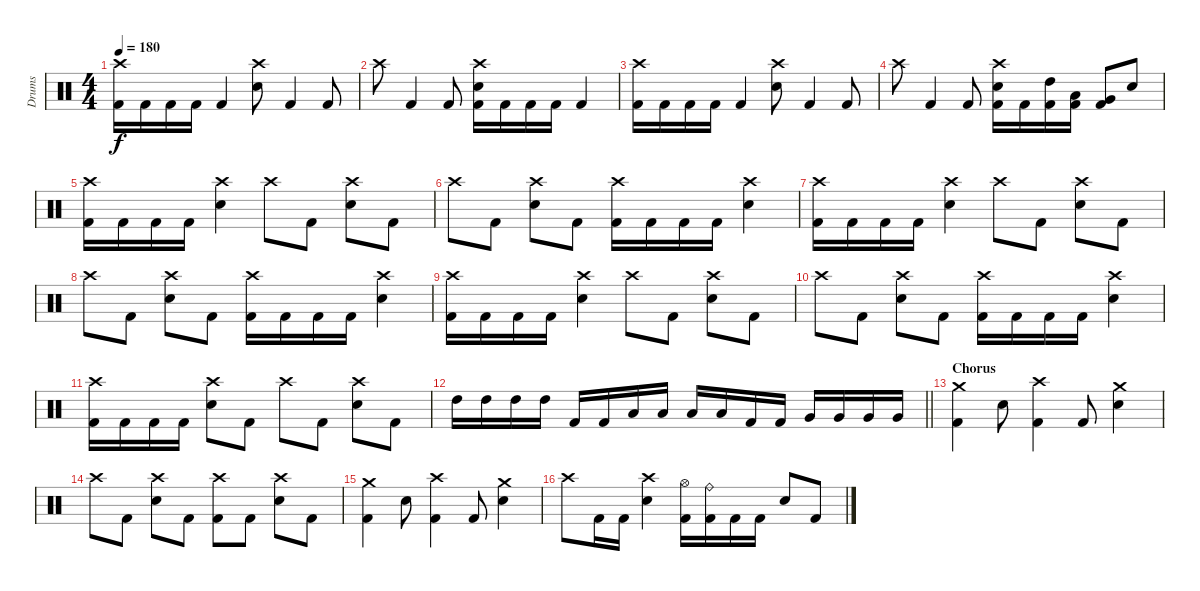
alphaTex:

\track ("Drums" "Drums") {instrument percussion}
\staff {score}
\articulation defaults
\ts (4 4)
\tempo 180
\clef neutral
\ks c
("Crash high (hit)" "Kick (hit) 2").16{dy f} "Kick (hit) 2".16 "Kick (hit) 2".16 "Kick (hit) 2".16 "Kick (hit) 2".4 ("Crash high (hit)" "Snare (hit) 2").8 "Kick (hit) 2".4 "Kick (hit) 2".8 |
"Crash high (hit)".8 "Kick (hit) 2".4 "Kick (hit) 2".8 ("Crash high (hit)" "Snare (hit) 2" "Kick (hit) 2").16 "Kick (hit) 2".16 "Kick (hit) 2".16 "Kick (hit) 2".16 "Kick (hit) 2".4 |
("Crash high (hit)" "Kick (hit) 2").16 "Kick (hit) 2".16 "Kick (hit) 2".16 "Kick (hit) 2".16 "Kick (hit) 2".4 ("Crash high (hit)" "Snare (hit) 2").8 "Kick (hit) 2".4 "Kick (hit) 2".8 |
"Crash high (hit)".8 "Kick (hit) 2".4 "Kick (hit) 2".8 ("Crash high (hit)" "Snare (hit) 2" "Kick (hit) 2").16 "Kick (hit) 2".16 ("High Tom (hit)" "Kick (hit) 2").16 ("Low Tom (hit)" "Kick (hit) 2").16 ("Very Low Tom (hit)" "Kick (hit) 2").8 "Snare (hit) 2".8 |
("Crash high (hit)" "Kick (hit) 2").16 "Kick (hit) 2".16 "Kick (hit) 2".16 "Kick (hit) 2".16 ("Crash high (hit)" "Snare (hit) 2").4 "Crash high (hit)".8 "Kick (hit) 2".8 ("Crash high (hit)" "Snare (hit) 2").8 "Kick (hit) 2".8 |
"Crash high (hit)".8 "Kick (hit) 2".8 ("Crash high (hit)" "Snare (hit) 2").8 "Kick (hit) 2".8 ("Crash high (hit)" "Kick (hit) 2").16 "Kick (hit) 2".16 "Kick (hit) 2".16 "Kick (hit) 2".16 ("Crash high (hit)" "Snare (hit) 2").4 |
("Crash high (hit)" "Kick (hit) 2").16 "Kick (hit) 2".16 "Kick (hit) 2".16 "Kick (hit) 2".16 ("Crash high (hit)" "Snare (hit) 2").4 "Crash high (hit)".8 "Kick (hit) 2".8 ("Crash high (hit)" "Snare (hit) 2").8 "Kick (hit) 2".8 |
"Crash high (hit)".8 "Kick (hit) 2".8 ("Crash high (hit)" "Snare (hit) 2").8 "Kick (hit) 2".8 ("Crash high (hit)" "Kick (hit) 2").16 "Kick (hit) 2".16 "Kick (hit) 2".16 "Kick (hit) 2".16 ("Crash high (hit)" "Snare (hit) 2").4 |
("Crash high (hit)" "Kick (hit) 2").16 "Kick (hit) 2".16 "Kick (hit) 2".16 "Kick (hit) 2".16 ("Crash high (hit)" "Snare (hit) 2").4 "Crash high (hit)".8 "Kick (hit) 2".8 ("Crash high (hit)" "Snare (hit) 2").8 "Kick (hit) 2".8 |
"Crash high (hit)".8 "Kick (hit) 2".8 ("Crash high (hit)" "Snare (hit) 2").8 "Kick (hit) 2".8 ("Crash high (hit)" "Kick (hit) 2").16 "Kick (hit) 2".16 "Kick (hit) 2".16 "Kick (hit) 2".16 ("Crash high (hit)" "Snare (hit) 2").4 |
("Crash high (hit)" "Kick (hit) 2").16 "Kick (hit) 2".16 "Kick (hit) 2".16 "Kick (hit) 2".16 ("Crash high (hit)" "Snare (hit) 2").8 "Kick (hit) 2".8 "Crash high (hit)".8 "Kick (hit) 2".8 ("Crash high (hit)" "Snare (hit) 2").8 "Kick (hit) 2".8 |
\barLineRight lightlight "High Tom (hit)".16 "High Tom (hit)".16 "High Tom (hit)".16 "High Tom (hit)".16 "Kick (hit) 2".16 "Kick (hit) 2".16 "Low Tom (hit)".16 "Low Tom (hit)".16 "Low Tom (hit)".16 "Low Tom (hit)".16 "Kick (hit) 2".16 "Kick (hit) 2".16 "Very Low Tom (hit)".16 "Very Low Tom (hit)".16 "Very Low Tom (hit)".16 "Very Low Tom (hit)".16
|
\section ("" "Chorus")
("Crash medium (hit)" "Kick (hit) 2").4 "Snare (hit) 2".8 ("Crash high (hit)" "Kick (hit) 2").4 "Kick (hit) 2".8 ("Crash medium (hit)" "Snare (hit) 2").4 |
"Crash high (hit)".8 "Kick (hit) 2".8 ("Crash high (hit)" "Snare (hit) 2").8 "Kick (hit) 2".8 ("Crash high (hit)" "Kick (hit) 2").8 "Kick (hit) 2".8 ("Crash high (hit)" "Snare (hit) 2").8 "Kick (hit) 2".8 |
("Crash medium (hit)" "Kick (hit) 2").4 "Snare (hit) 2".8 ("Crash high (hit)" "Kick (hit) 2").4 "Kick (hit) 2".8 ("Crash medium (hit)" "Snare (hit) 2").4 |
"Crash high (hit)".8 "Kick (hit) 2".16 "Kick (hit) 2".16 ("Crash high (hit)" "Snare (hit) 2").4 ("Hi-Hat (open)" "Kick (hit) 2").16 ("Ride (bell)" "Kick (hit) 2").16 "Kick (hit) 2".16 "Kick (hit) 2".16 "Snare (hit) 2".8 "Kick (hit) 2".8
